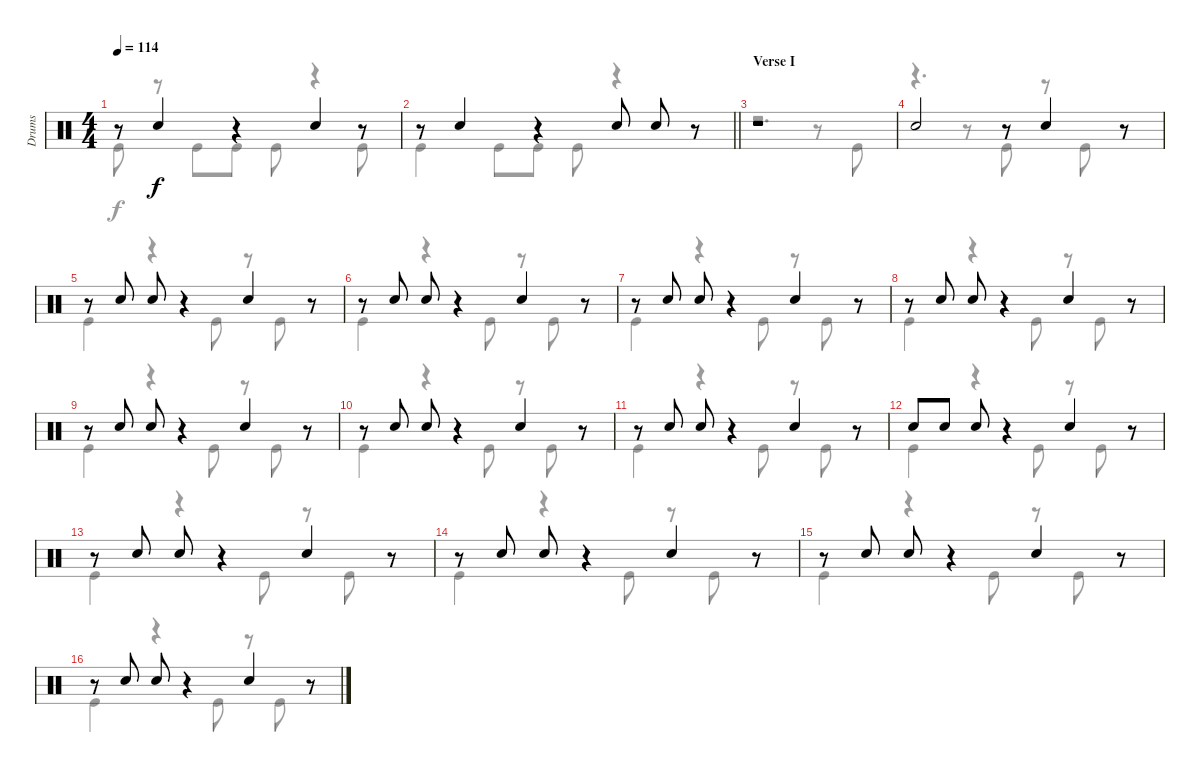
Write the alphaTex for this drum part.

\track ("Drums" "Drums") {instrument percussion}
\staff {score}
\articulation defaults
\voice
\ts (4 4)
\tempo 114
\clef neutral
\ks c
r.8{dy f} "Snare (hit) 2".4 r.4 "Snare (hit) 2".4 r.8 |
\barLineRight lightlight
r.8 "Snare (hit) 2".4 r.4 "Snare (hit) 2".8 "Snare (hit) 2".8 r.8 |
\section ("" "Verse I")
r.1 |
"Snare (hit) 2".2 r.8 "Snare (hit) 2".4 r.8 |
r.8 "Snare (hit) 2".8 "Snare (hit) 2".8 r.4 "Snare (hit) 2".4 r.8 |
r.8 "Snare (hit) 2".8 "Snare (hit) 2".8 r.4 "Snare (hit) 2".4 r.8 |
r.8 "Snare (hit) 2".8 "Snare (hit) 2".8 r.4 "Snare (hit) 2".4 r.8 |
r.8 "Snare (hit) 2".8 "Snare (hit) 2".8 r.4 "Snare (hit) 2".4 r.8 |
r.8 "Snare (hit) 2".8 "Snare (hit) 2".8 r.4 "Snare (hit) 2".4 r.8 |
r.8 "Snare (hit) 2".8 "Snare (hit) 2".8 r.4 "Snare (hit) 2".4 r.8 |
r.8 "Snare (hit) 2".8 "Snare (hit) 2".8 r.4 "Snare (hit) 2".4 r.8 |
"Snare (hit) 2".8 "Snare (hit) 2".8 "Snare (hit) 2".8 r.4 "Snare (hit) 2".4 r.8 |
r.8 "Snare (hit) 2".8 "Snare (hit) 2".8 r.4 "Snare (hit) 2".4 r.8 |
r.8 "Snare (hit) 2".8 "Snare (hit) 2".8 r.4 "Snare (hit) 2".4 r.8 |
r.8 "Snare (hit) 2".8 "Snare (hit) 2".8 r.4 "Snare (hit) 2".4 r.8 |
r.8 "Snare (hit) 2".8 "Snare (hit) 2".8 r.4 "Snare (hit) 2".4 r.8
\voice
\clef neutral
\ottava regular
\simile none
\ks c "Kick (hit)".8{dy f}
r.8 "Kick (hit)".8 "Kick (hit)".8 "Kick (hit)".8 r.4 "Kick (hit)".8 |
\barLineRight lightlight "Kick (hit)".4 "Kick (hit)".8 "Kick (hit)".8 "Kick (hit)".8
r.4 r.8 |
r.2{d} r.8 "Kick (hit)".8 |
r.4{d} r.8 "Kick (hit)".8 r.8 "Kick (hit)".8 r.8 |
"Kick (hit)".4 r.4 "Kick (hit)".8 r.8 "Kick (hit)".8 r.8 |
"Kick (hit)".4 r.4 "Kick (hit)".8 r.8 "Kick (hit)".8 r.8 |
"Kick (hit)".4 r.4 "Kick (hit)".8 r.8 "Kick (hit)".8 r.8 |
"Kick (hit)".4 r.4 "Kick (hit)".8 r.8 "Kick (hit)".8 r.8 |
"Kick (hit)".4 r.4 "Kick (hit)".8 r.8 "Kick (hit)".8 r.8 |
"Kick (hit)".4 r.4 "Kick (hit)".8 r.8 "Kick (hit)".8 r.8 |
"Kick (hit)".4 r.4 "Kick (hit)".8 r.8 "Kick (hit)".8 r.8 |
"Kick (hit)".4 r.4 "Kick (hit)".8 r.8 "Kick (hit)".8 r.8 |
"Kick (hit)".4 r.4 "Kick (hit)".8 r.8 "Kick (hit)".8 r.8 |
"Kick (hit)".4 r.4 "Kick (hit)".8 r.8 "Kick (hit)".8 r.8 |
"Kick (hit)".4 r.4 "Kick (hit)".8 r.8 "Kick (hit)".8 r.8 |
"Kick (hit)".4 r.4 "Kick (hit)".8 r.8 "Kick (hit)".8 r.8
